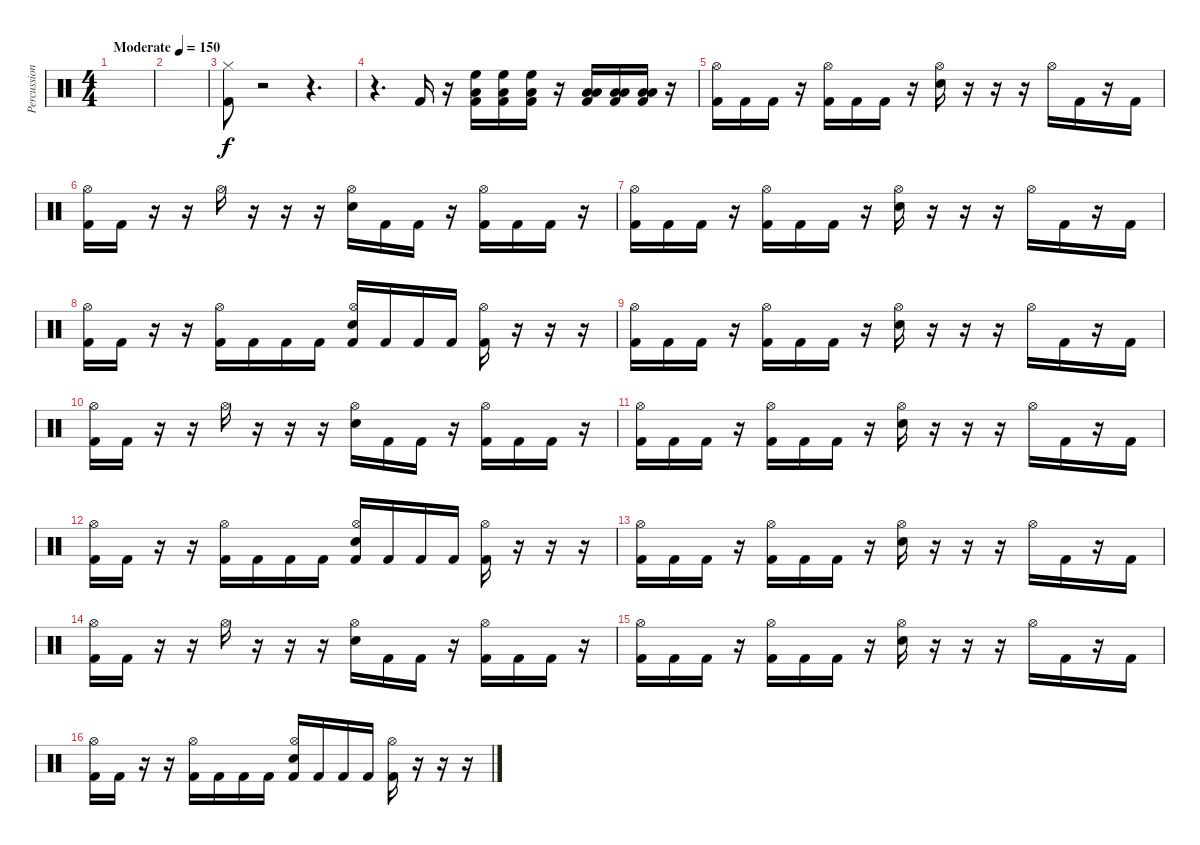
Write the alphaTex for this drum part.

\track ("Percussion" "Percussion") {instrument percussion}
\staff {score}
\articulation defaults
\ts (4 4)
\tempo (150 "Moderate")
\clef neutral
\ks c
|
|
("Hi-Hat (closed)" "Kick (hit) 2").8 r.2 r.4{d} |
r.4{d} "Kick (hit) 2".16 r.16 ("Low Tom (hit)" "High Floor Tom (hit)" "Kick (hit) 2").16 ("Low Tom (hit)" "High Floor Tom (hit)" "Kick (hit) 2").16 ("Low Tom (hit)" "High Floor Tom (hit)" "Kick (hit) 2").16 r.16 ("Low Floor Tom (hit)" "Low Tom (hit)" "Kick (hit) 2").16 ("Low Floor Tom (hit)" "Low Tom (hit)" "Kick (hit) 2").16 ("Low Floor Tom (hit)" "Low Tom (hit)" "Kick (hit) 2").16 r.16 |
("Hi-Hat (open)" "Kick (hit) 2").16 "Kick (hit) 2".16 "Kick (hit) 2".16 r.16 ("Hi-Hat (open)" "Kick (hit) 2").16 "Kick (hit) 2".16 "Kick (hit) 2".16 r.16 ("Hi-Hat (open)" "Electric Snare (hit)").16 r.16 r.16 r.16 "Hi-Hat (open)".16 "Kick (hit) 2".16 r.16 "Kick (hit) 2".16 |
("Hi-Hat (open)" "Kick (hit) 2").16 "Kick (hit) 2".16 r.16 r.16 "Hi-Hat (open)".16 r.16 r.16 r.16 ("Hi-Hat (open)" "Electric Snare (hit)").16 "Kick (hit) 2".16 "Kick (hit) 2".16 r.16 ("Hi-Hat (open)" "Kick (hit) 2").16 "Kick (hit) 2".16 "Kick (hit) 2".16 r.16 |
("Hi-Hat (open)" "Kick (hit) 2").16 "Kick (hit) 2".16 "Kick (hit) 2".16 r.16 ("Hi-Hat (open)" "Kick (hit) 2").16 "Kick (hit) 2".16 "Kick (hit) 2".16 r.16 ("Hi-Hat (open)" "Electric Snare (hit)").16 r.16 r.16 r.16 "Hi-Hat (open)".16 "Kick (hit) 2".16 r.16 "Kick (hit) 2".16 |
("Hi-Hat (open)" "Kick (hit) 2").16 "Kick (hit) 2".16 r.16 r.16 ("Hi-Hat (open)" "Kick (hit) 2").16 "Kick (hit) 2".16 "Kick (hit) 2".16 "Kick (hit) 2".16 ("Hi-Hat (open)" "Electric Snare (hit)" "Kick (hit) 2").16 "Kick (hit) 2".16 "Kick (hit) 2".16 "Kick (hit) 2".16 ("Hi-Hat (open)" "Kick (hit) 2").16 r.16 r.16 r.16 |
("Hi-Hat (open)" "Kick (hit) 2").16 "Kick (hit) 2".16 "Kick (hit) 2".16 r.16 ("Hi-Hat (open)" "Kick (hit) 2").16 "Kick (hit) 2".16 "Kick (hit) 2".16 r.16 ("Hi-Hat (open)" "Electric Snare (hit)").16 r.16 r.16 r.16 "Hi-Hat (open)".16 "Kick (hit) 2".16 r.16 "Kick (hit) 2".16 |
("Hi-Hat (open)" "Kick (hit) 2").16 "Kick (hit) 2".16 r.16 r.16 "Hi-Hat (open)".16 r.16 r.16 r.16 ("Hi-Hat (open)" "Electric Snare (hit)").16 "Kick (hit) 2".16 "Kick (hit) 2".16 r.16 ("Hi-Hat (open)" "Kick (hit) 2").16 "Kick (hit) 2".16 "Kick (hit) 2".16 r.16 |
("Hi-Hat (open)" "Kick (hit) 2").16 "Kick (hit) 2".16 "Kick (hit) 2".16 r.16 ("Hi-Hat (open)" "Kick (hit) 2").16 "Kick (hit) 2".16 "Kick (hit) 2".16 r.16 ("Hi-Hat (open)" "Electric Snare (hit)").16 r.16 r.16 r.16 "Hi-Hat (open)".16 "Kick (hit) 2".16 r.16 "Kick (hit) 2".16 |
("Hi-Hat (open)" "Kick (hit) 2").16 "Kick (hit) 2".16 r.16 r.16 ("Hi-Hat (open)" "Kick (hit) 2").16 "Kick (hit) 2".16 "Kick (hit) 2".16 "Kick (hit) 2".16 ("Hi-Hat (open)" "Electric Snare (hit)" "Kick (hit) 2").16 "Kick (hit) 2".16 "Kick (hit) 2".16 "Kick (hit) 2".16 ("Hi-Hat (open)" "Kick (hit) 2").16 r.16 r.16 r.16 |
("Hi-Hat (open)" "Kick (hit) 2").16 "Kick (hit) 2".16 "Kick (hit) 2".16 r.16 ("Hi-Hat (open)" "Kick (hit) 2").16 "Kick (hit) 2".16 "Kick (hit) 2".16 r.16 ("Hi-Hat (open)" "Electric Snare (hit)").16 r.16 r.16 r.16 "Hi-Hat (open)".16 "Kick (hit) 2".16 r.16 "Kick (hit) 2".16 |
("Hi-Hat (open)" "Kick (hit) 2").16 "Kick (hit) 2".16 r.16 r.16 "Hi-Hat (open)".16 r.16 r.16 r.16 ("Hi-Hat (open)" "Electric Snare (hit)").16 "Kick (hit) 2".16 "Kick (hit) 2".16 r.16 ("Hi-Hat (open)" "Kick (hit) 2").16 "Kick (hit) 2".16 "Kick (hit) 2".16 r.16 |
("Hi-Hat (open)" "Kick (hit) 2").16 "Kick (hit) 2".16 "Kick (hit) 2".16 r.16 ("Hi-Hat (open)" "Kick (hit) 2").16 "Kick (hit) 2".16 "Kick (hit) 2".16 r.16 ("Hi-Hat (open)" "Electric Snare (hit)").16 r.16 r.16 r.16 "Hi-Hat (open)".16 "Kick (hit) 2".16 r.16 "Kick (hit) 2".16 |
("Hi-Hat (open)" "Kick (hit) 2").16 "Kick (hit) 2".16 r.16 r.16 ("Hi-Hat (open)" "Kick (hit) 2").16 "Kick (hit) 2".16 "Kick (hit) 2".16 "Kick (hit) 2".16 ("Hi-Hat (open)" "Electric Snare (hit)" "Kick (hit) 2").16 "Kick (hit) 2".16 "Kick (hit) 2".16 "Kick (hit) 2".16 ("Hi-Hat (open)" "Kick (hit) 2").16 r.16 r.16 r.16
